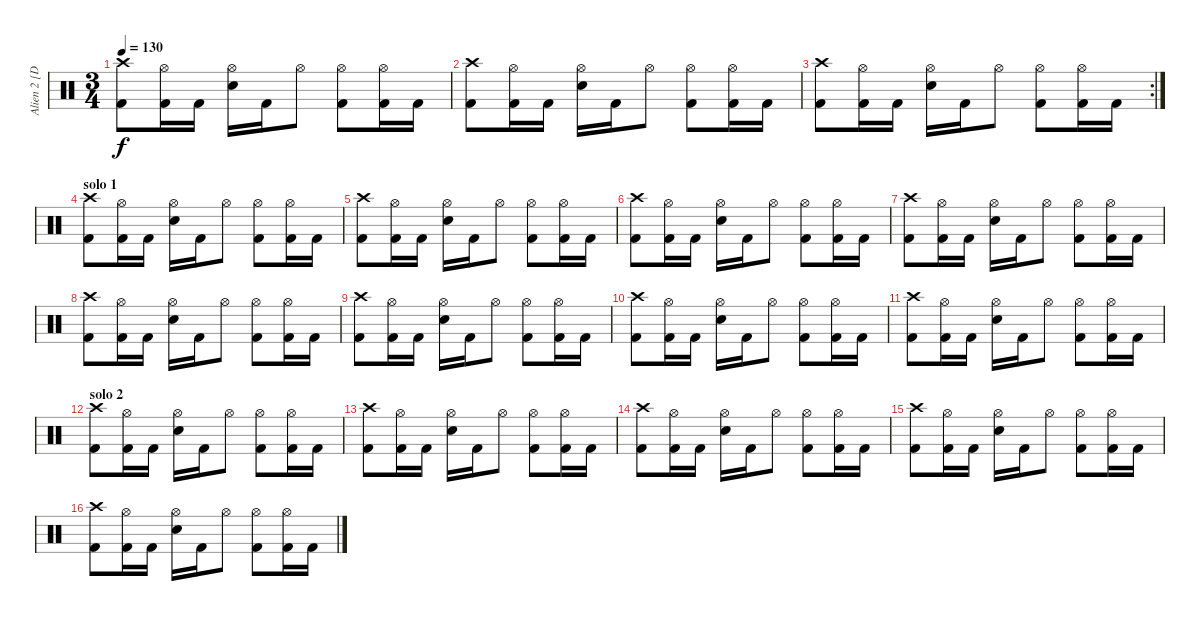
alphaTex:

\track ("Alien 2 [Drums]" "Alien 2 [D") {instrument percussion}
\staff {score}
\articulation defaults
\ts (3 4)
\tempo 130
\clef neutral
\ks c
("Crash high (hit)" "Kick (hit) 2").8{dy f} ("Hi-Hat (open)" "Kick (hit) 2").16 "Kick (hit) 2".16 ("Hi-Hat (open)" "Electric Snare (hit)").16 "Kick (hit) 2".16 "Hi-Hat (open)".8 ("Hi-Hat (open)" "Kick (hit) 2").8 ("Hi-Hat (open)" "Kick (hit) 2").16 "Kick (hit) 2".16 |
("Crash high (hit)" "Kick (hit) 2").8 ("Hi-Hat (open)" "Kick (hit) 2").16 "Kick (hit) 2".16 ("Hi-Hat (open)" "Electric Snare (hit)").16 "Kick (hit) 2".16 "Hi-Hat (open)".8 ("Hi-Hat (open)" "Kick (hit) 2").8 ("Hi-Hat (open)" "Kick (hit) 2").16 "Kick (hit) 2".16 |
\rc 2
("Crash high (hit)" "Kick (hit) 2").8 ("Hi-Hat (open)" "Kick (hit) 2").16 "Kick (hit) 2".16 ("Hi-Hat (open)" "Electric Snare (hit)").16 "Kick (hit) 2".16 "Hi-Hat (open)".8 ("Hi-Hat (open)" "Kick (hit) 2").8 ("Hi-Hat (open)" "Kick (hit) 2").16 "Kick (hit) 2".16 |
\section ("" "solo 1")
("Crash high (hit)" "Kick (hit) 2").8 ("Hi-Hat (open)" "Kick (hit) 2").16 "Kick (hit) 2".16 ("Hi-Hat (open)" "Electric Snare (hit)").16 "Kick (hit) 2".16 "Hi-Hat (open)".8 ("Hi-Hat (open)" "Kick (hit) 2").8 ("Hi-Hat (open)" "Kick (hit) 2").16 "Kick (hit) 2".16 |
("Crash high (hit)" "Kick (hit) 2").8 ("Hi-Hat (open)" "Kick (hit) 2").16 "Kick (hit) 2".16 ("Hi-Hat (open)" "Electric Snare (hit)").16 "Kick (hit) 2".16 "Hi-Hat (open)".8 ("Hi-Hat (open)" "Kick (hit) 2").8 ("Hi-Hat (open)" "Kick (hit) 2").16 "Kick (hit) 2".16 |
("Crash high (hit)" "Kick (hit) 2").8 ("Hi-Hat (open)" "Kick (hit) 2").16 "Kick (hit) 2".16 ("Hi-Hat (open)" "Electric Snare (hit)").16 "Kick (hit) 2".16 "Hi-Hat (open)".8 ("Hi-Hat (open)" "Kick (hit) 2").8 ("Hi-Hat (open)" "Kick (hit) 2").16 "Kick (hit) 2".16 |
("Crash high (hit)" "Kick (hit) 2").8 ("Hi-Hat (open)" "Kick (hit) 2").16 "Kick (hit) 2".16 ("Hi-Hat (open)" "Electric Snare (hit)").16 "Kick (hit) 2".16 "Hi-Hat (open)".8 ("Hi-Hat (open)" "Kick (hit) 2").8 ("Hi-Hat (open)" "Kick (hit) 2").16 "Kick (hit) 2".16 |
("Crash high (hit)" "Kick (hit) 2").8 ("Hi-Hat (open)" "Kick (hit) 2").16 "Kick (hit) 2".16 ("Hi-Hat (open)" "Electric Snare (hit)").16 "Kick (hit) 2".16 "Hi-Hat (open)".8 ("Hi-Hat (open)" "Kick (hit) 2").8 ("Hi-Hat (open)" "Kick (hit) 2").16 "Kick (hit) 2".16 |
("Crash high (hit)" "Kick (hit) 2").8 ("Hi-Hat (open)" "Kick (hit) 2").16 "Kick (hit) 2".16 ("Hi-Hat (open)" "Electric Snare (hit)").16 "Kick (hit) 2".16 "Hi-Hat (open)".8 ("Hi-Hat (open)" "Kick (hit) 2").8 ("Hi-Hat (open)" "Kick (hit) 2").16 "Kick (hit) 2".16 |
("Crash high (hit)" "Kick (hit) 2").8 ("Hi-Hat (open)" "Kick (hit) 2").16 "Kick (hit) 2".16 ("Hi-Hat (open)" "Electric Snare (hit)").16 "Kick (hit) 2".16 "Hi-Hat (open)".8 ("Hi-Hat (open)" "Kick (hit) 2").8 ("Hi-Hat (open)" "Kick (hit) 2").16 "Kick (hit) 2".16 |
("Crash high (hit)" "Kick (hit) 2").8 ("Hi-Hat (open)" "Kick (hit) 2").16 "Kick (hit) 2".16 ("Hi-Hat (open)" "Electric Snare (hit)").16 "Kick (hit) 2".16 "Hi-Hat (open)".8 ("Hi-Hat (open)" "Kick (hit) 2").8 ("Hi-Hat (open)" "Kick (hit) 2").16 "Kick (hit) 2".16 |
\section ("" "solo 2")
("Crash high (hit)" "Kick (hit) 2").8 ("Hi-Hat (open)" "Kick (hit) 2").16 "Kick (hit) 2".16 ("Hi-Hat (open)" "Electric Snare (hit)").16 "Kick (hit) 2".16 "Hi-Hat (open)".8 ("Hi-Hat (open)" "Kick (hit) 2").8 ("Hi-Hat (open)" "Kick (hit) 2").16 "Kick (hit) 2".16 |
("Crash high (hit)" "Kick (hit) 2").8 ("Hi-Hat (open)" "Kick (hit) 2").16 "Kick (hit) 2".16 ("Hi-Hat (open)" "Electric Snare (hit)").16 "Kick (hit) 2".16 "Hi-Hat (open)".8 ("Hi-Hat (open)" "Kick (hit) 2").8 ("Hi-Hat (open)" "Kick (hit) 2").16 "Kick (hit) 2".16 |
("Crash high (hit)" "Kick (hit) 2").8 ("Hi-Hat (open)" "Kick (hit) 2").16 "Kick (hit) 2".16 ("Hi-Hat (open)" "Electric Snare (hit)").16 "Kick (hit) 2".16 "Hi-Hat (open)".8 ("Hi-Hat (open)" "Kick (hit) 2").8 ("Hi-Hat (open)" "Kick (hit) 2").16 "Kick (hit) 2".16 |
("Crash high (hit)" "Kick (hit) 2").8 ("Hi-Hat (open)" "Kick (hit) 2").16 "Kick (hit) 2".16 ("Hi-Hat (open)" "Electric Snare (hit)").16 "Kick (hit) 2".16 "Hi-Hat (open)".8 ("Hi-Hat (open)" "Kick (hit) 2").8 ("Hi-Hat (open)" "Kick (hit) 2").16 "Kick (hit) 2".16 |
("Crash high (hit)" "Kick (hit) 2").8 ("Hi-Hat (open)" "Kick (hit) 2").16 "Kick (hit) 2".16 ("Hi-Hat (open)" "Electric Snare (hit)").16 "Kick (hit) 2".16 "Hi-Hat (open)".8 ("Hi-Hat (open)" "Kick (hit) 2").8 ("Hi-Hat (open)" "Kick (hit) 2").16 "Kick (hit) 2".16
